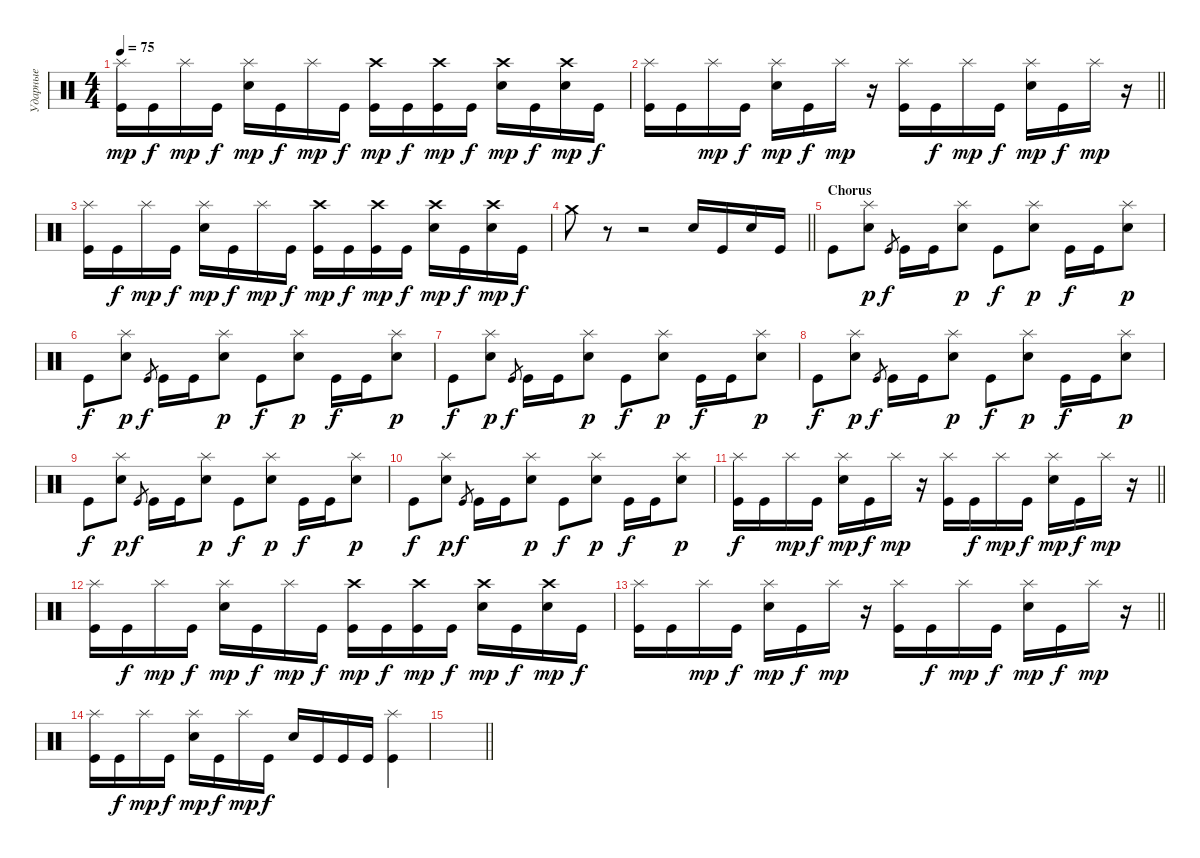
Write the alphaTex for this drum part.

\track ("Ударные" "Ударные") {instrument percussion}
\staff {score}
\articulation defaults
\ts (4 4)
\tempo 75
\clef neutral
\ks c
("Splash (hit)" "Kick (hit)").16{dy mp} "Kick (hit)".16{dy f} "Splash (hit)".16{dy mp} "Kick (hit)".16{dy f} ("Splash (hit)" "Snare (hit) 2").16{dy mp} "Kick (hit)".16{dy f} "Splash (hit)".16{dy mp} "Kick (hit)".16{dy f} ("Crash high (hit)" "Kick (hit)").16{dy mp} "Kick (hit)".16{dy f} ("Crash high (hit)" "Kick (hit)").16{dy mp} "Kick (hit)".16{dy f} ("Crash high (hit)" "Snare (hit) 2").16{dy mp} "Kick (hit)".16{dy f} ("Crash high (hit)" "Snare (hit) 2").16{dy mp} "Kick (hit)".16{dy f} |
\barLineRight lightlight
("Splash (hit)" "Kick (hit)").16 "Kick (hit)".16 "Splash (hit)".16{dy mp} "Kick (hit)".16{dy f} ("Splash (hit)" "Snare (hit) 2").16{dy mp} "Kick (hit)".16{dy f} "Splash (hit)".16{dy mp} r.16 ("Splash (hit)" "Kick (hit)").16 "Kick (hit)".16{dy f} "Splash (hit)".16{dy mp} "Kick (hit)".16{dy f} ("Splash (hit)" "Snare (hit) 2").16{dy mp} "Kick (hit)".16{dy f} "Splash (hit)".16{dy mp} r.16 |
("Splash (hit)" "Kick (hit)").16 "Kick (hit)".16{dy f} "Splash (hit)".16{dy mp} "Kick (hit)".16{dy f} ("Splash (hit)" "Snare (hit) 2").16{dy mp} "Kick (hit)".16{dy f} "Splash (hit)".16{dy mp} "Kick (hit)".16{dy f} ("Crash high (hit)" "Kick (hit)").16{dy mp} "Kick (hit)".16{dy f} ("Crash high (hit)" "Kick (hit)").16{dy mp} "Kick (hit)".16{dy f} ("Crash high (hit)" "Snare (hit) 2").16{dy mp} "Kick (hit)".16{dy f} ("Crash high (hit)" "Snare (hit) 2").16{dy mp} "Kick (hit)".16{dy f} |
\barLineRight lightlight "Crash medium (hit)".8
r.8 r.2 "Snare (hit) 2".16 "Kick (hit)".16 "Snare (hit) 2".16 "Kick (hit)".16 |
\section ("" "Chorus")
"Kick (hit)".8 ("Snare (hit) 2" "Splash (hit)").8{dy p} "Kick (hit)".8{gr dy f} "Kick (hit)".16 "Kick (hit)".16 ("Snare (hit) 2" "Splash (hit)").8{dy p} "Kick (hit)".8{dy f} ("Snare (hit) 2" "Splash (hit)").8{dy p} "Kick (hit)".16{dy f} "Kick (hit)".16 ("Snare (hit) 2" "Splash (hit)").8{dy p} |
"Kick (hit)".8{dy f} ("Snare (hit) 2" "Splash (hit)").8{dy p} "Kick (hit)".8{gr dy f} "Kick (hit)".16 "Kick (hit)".16 ("Snare (hit) 2" "Splash (hit)").8{dy p} "Kick (hit)".8{dy f} ("Snare (hit) 2" "Splash (hit)").8{dy p} "Kick (hit)".16{dy f} "Kick (hit)".16 ("Snare (hit) 2" "Splash (hit)").8{dy p} |
"Kick (hit)".8{dy f} ("Snare (hit) 2" "Splash (hit)").8{dy p} "Kick (hit)".8{gr dy f} "Kick (hit)".16 "Kick (hit)".16 ("Snare (hit) 2" "Splash (hit)").8{dy p} "Kick (hit)".8{dy f} ("Snare (hit) 2" "Splash (hit)").8{dy p} "Kick (hit)".16{dy f} "Kick (hit)".16 ("Snare (hit) 2" "Splash (hit)").8{dy p} |
"Kick (hit)".8{dy f} ("Snare (hit) 2" "Splash (hit)").8{dy p} "Kick (hit)".8{gr dy f} "Kick (hit)".16 "Kick (hit)".16 ("Snare (hit) 2" "Splash (hit)").8{dy p} "Kick (hit)".8{dy f} ("Snare (hit) 2" "Splash (hit)").8{dy p} "Kick (hit)".16{dy f} "Kick (hit)".16 ("Snare (hit) 2" "Splash (hit)").8{dy p} |
"Kick (hit)".8{dy f} ("Snare (hit) 2" "Splash (hit)").8{dy p} "Kick (hit)".8{gr dy f} "Kick (hit)".16 "Kick (hit)".16 ("Snare (hit) 2" "Splash (hit)").8{dy p} "Kick (hit)".8{dy f} ("Snare (hit) 2" "Splash (hit)").8{dy p} "Kick (hit)".16{dy f} "Kick (hit)".16 ("Snare (hit) 2" "Splash (hit)").8{dy p} |
"Kick (hit)".8{dy f} ("Snare (hit) 2" "Splash (hit)").8{dy p} "Kick (hit)".8{gr dy f} "Kick (hit)".16 "Kick (hit)".16 ("Snare (hit) 2" "Splash (hit)").8{dy p} "Kick (hit)".8{dy f} ("Snare (hit) 2" "Splash (hit)").8{dy p} "Kick (hit)".16{dy f} "Kick (hit)".16 ("Snare (hit) 2" "Splash (hit)").8{dy p} |
\barLineRight lightlight
("Splash (hit)" "Kick (hit)").16{dy f} "Kick (hit)".16 "Splash (hit)".16{dy mp} "Kick (hit)".16{dy f} ("Splash (hit)" "Snare (hit) 2").16{dy mp} "Kick (hit)".16{dy f} "Splash (hit)".16{dy mp} r.16 ("Splash (hit)" "Kick (hit)").16 "Kick (hit)".16{dy f} "Splash (hit)".16{dy mp} "Kick (hit)".16{dy f} ("Splash (hit)" "Snare (hit) 2").16{dy mp} "Kick (hit)".16{dy f} "Splash (hit)".16{dy mp} r.16 |
("Splash (hit)" "Kick (hit)").16 "Kick (hit)".16{dy f} "Splash (hit)".16{dy mp} "Kick (hit)".16{dy f} ("Splash (hit)" "Snare (hit) 2").16{dy mp} "Kick (hit)".16{dy f} "Splash (hit)".16{dy mp} "Kick (hit)".16{dy f} ("Crash high (hit)" "Kick (hit)").16{dy mp} "Kick (hit)".16{dy f} ("Crash high (hit)" "Kick (hit)").16{dy mp} "Kick (hit)".16{dy f} ("Crash high (hit)" "Snare (hit) 2").16{dy mp} "Kick (hit)".16{dy f} ("Crash high (hit)" "Snare (hit) 2").16{dy mp} "Kick (hit)".16{dy f} |
\barLineRight lightlight
("Splash (hit)" "Kick (hit)").16 "Kick (hit)".16 "Splash (hit)".16{dy mp} "Kick (hit)".16{dy f} ("Splash (hit)" "Snare (hit) 2").16{dy mp} "Kick (hit)".16{dy f} "Splash (hit)".16{dy mp} r.16 ("Splash (hit)" "Kick (hit)").16 "Kick (hit)".16{dy f} "Splash (hit)".16{dy mp} "Kick (hit)".16{dy f} ("Splash (hit)" "Snare (hit) 2").16{dy mp} "Kick (hit)".16{dy f} "Splash (hit)".16{dy mp} r.16 |
("Splash (hit)" "Kick (hit)").16 "Kick (hit)".16{dy f} "Splash (hit)".16{dy mp} "Kick (hit)".16{dy f} ("Splash (hit)" "Snare (hit) 2").16{dy mp} "Kick (hit)".16{dy f} "Splash (hit)".16{dy mp} "Kick (hit)".16{dy f} "Snare (hit) 2".16 "Kick (hit)".16 "Kick (hit)".16 "Kick (hit)".16 ("Splash (hit)" "Kick (hit)").4 |
\barLineRight lightlight
